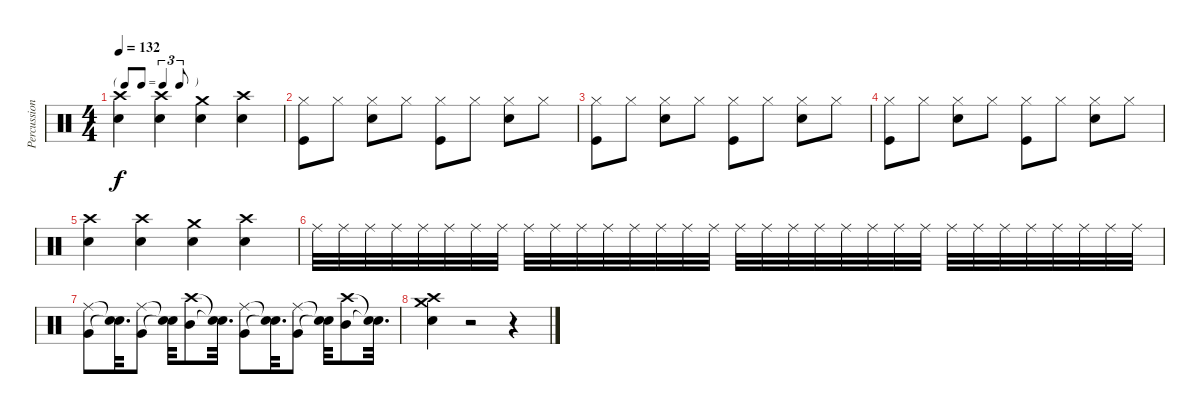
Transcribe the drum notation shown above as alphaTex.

\track ("Percussion" "Percussion") {instrument percussion}
\staff {score}
\articulation defaults
\ts (4 4)
\tf triplet8th
\tempo 132
\clef neutral
\ks c
("Crash high (hit)" "Snare (hit) 2").4{dy f} ("Crash high (hit)" "Snare (hit) 2").4 ("Crash medium (hit)" "Snare (hit) 2").4 ("Crash high (hit)" "Snare (hit) 2").4 |
("Hi-Hat (closed)" "Kick (hit)").8 "Hi-Hat (closed)".8 ("Hi-Hat (closed)" "Snare (hit) 2").8 "Hi-Hat (closed)".8 ("Hi-Hat (closed)" "Kick (hit)").8 "Hi-Hat (closed)".8 ("Hi-Hat (closed)" "Snare (hit) 2").8 "Hi-Hat (closed)".8 |
("Hi-Hat (closed)" "Kick (hit)").8 "Hi-Hat (closed)".8 ("Hi-Hat (closed)" "Snare (hit) 2").8 "Hi-Hat (closed)".8 ("Hi-Hat (closed)" "Kick (hit)").8 "Hi-Hat (closed)".8 ("Hi-Hat (closed)" "Snare (hit) 2").8 "Hi-Hat (closed)".8 |
("Hi-Hat (closed)" "Kick (hit)").8 "Hi-Hat (closed)".8 ("Hi-Hat (closed)" "Snare (hit) 2").8 "Hi-Hat (closed)".8 ("Hi-Hat (closed)" "Kick (hit)").8 "Hi-Hat (closed)".8 ("Hi-Hat (closed)" "Snare (hit) 2").8 "Hi-Hat (closed)".8 |
("Crash high (hit)" "Snare (hit) 2").4 ("Crash high (hit)" "Snare (hit) 2").4 ("Crash medium (hit)" "Snare (hit) 2").4 ("Crash high (hit)" "Snare (hit) 2").4 |
"Ride (middle)".32 "Ride (middle)".32 "Ride (middle)".32 "Ride (middle)".32 "Ride (middle)".32 "Ride (middle)".32 "Ride (middle)".32 "Ride (middle)".32 "Ride (middle)".32 "Ride (middle)".32 "Ride (middle)".32 "Ride (middle)".32 "Ride (middle)".32 "Ride (middle)".32 "Ride (middle)".32 "Ride (middle)".32 "Ride (middle)".32 "Ride (middle)".32 "Ride (middle)".32 "Ride (middle)".32 "Ride (middle)".32 "Ride (middle)".32 "Ride (middle)".32 "Ride (middle)".32 "Ride (middle)".32 "Ride (middle)".32 "Ride (middle)".32 "Ride (middle)".32 "Ride (middle)".32 "Ride (middle)".32 "Ride (middle)".32 "Ride (middle)".32 |
("Very Low Tom (hit)" "Ride (middle)").8 ("Snare (hit)"{t} "Snare (hit)"{t}).32{d} ("Very Low Tom (hit)" "Ride (middle)").8 ("Snare (hit)"{t} "Snare (hit)"{t}).32 ("Mid Tom (hit)" "Crash high (hit)").8 ("Snare (hit)"{t} "Snare (hit)"{t}).32{d} ("Very Low Tom (hit)" "Ride (middle)").8 ("Snare (hit)"{t} "Snare (hit)"{t}).32{d} ("Very Low Tom (hit)" "Ride (middle)").8 ("Snare (hit)"{t} "Snare (hit)"{t}).32 ("Mid Tom (hit)" "Crash high (hit)").8 ("Snare (hit)"{t} "Snare (hit)"{t}).32{d} |
("Crash medium (hit)" "Crash high (hit)" "Electric Snare (hit)").4 r.2 r.4
